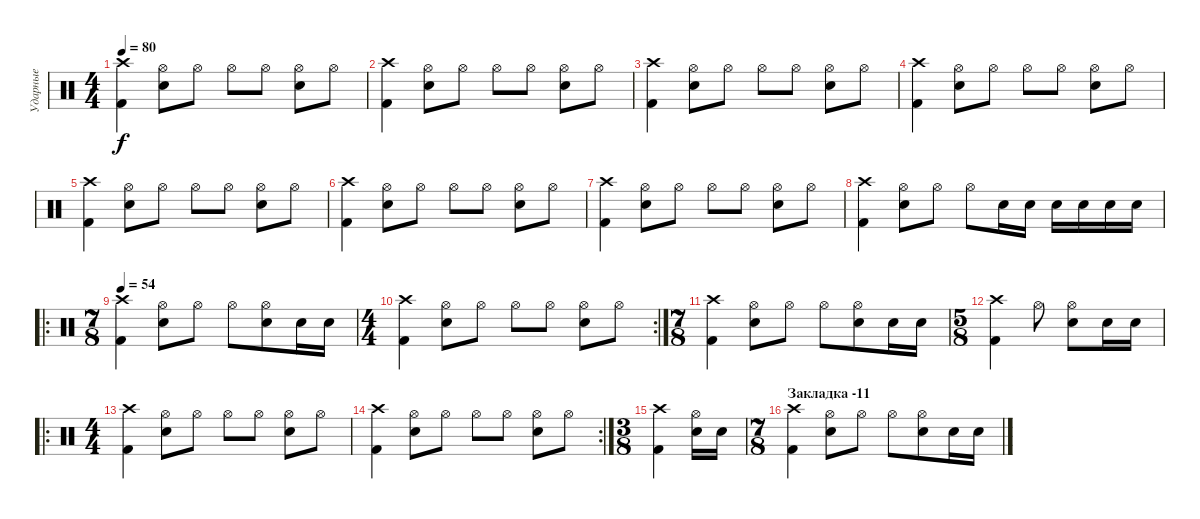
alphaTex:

\track ("Ударные" "Ударные") {instrument percussion}
\staff {score}
\articulation defaults
\ts (4 4)
\tempo 80
\clef neutral
\ks c
("Crash high (hit)" "Kick (hit) 2").4{dy f} ("Hi-Hat (open)" "Snare (hit) 2").8 "Hi-Hat (open)".8 "Hi-Hat (open)".8 "Hi-Hat (open)".8 ("Hi-Hat (open)" "Snare (hit) 2").8 "Hi-Hat (open)".8 |
("Crash high (hit)" "Kick (hit) 2").4 ("Hi-Hat (open)" "Snare (hit) 2").8 "Hi-Hat (open)".8 "Hi-Hat (open)".8 "Hi-Hat (open)".8 ("Hi-Hat (open)" "Snare (hit) 2").8 "Hi-Hat (open)".8 |
("Crash high (hit)" "Kick (hit) 2").4 ("Hi-Hat (open)" "Snare (hit) 2").8 "Hi-Hat (open)".8 "Hi-Hat (open)".8 "Hi-Hat (open)".8 ("Hi-Hat (open)" "Snare (hit) 2").8 "Hi-Hat (open)".8 |
("Crash high (hit)" "Kick (hit) 2").4 ("Hi-Hat (open)" "Snare (hit) 2").8 "Hi-Hat (open)".8 "Hi-Hat (open)".8 "Hi-Hat (open)".8 ("Hi-Hat (open)" "Snare (hit) 2").8 "Hi-Hat (open)".8 |
("Crash high (hit)" "Kick (hit) 2").4 ("Hi-Hat (open)" "Snare (hit) 2").8 "Hi-Hat (open)".8 "Hi-Hat (open)".8 "Hi-Hat (open)".8 ("Hi-Hat (open)" "Snare (hit) 2").8 "Hi-Hat (open)".8 |
("Crash high (hit)" "Kick (hit) 2").4 ("Hi-Hat (open)" "Snare (hit) 2").8 "Hi-Hat (open)".8 "Hi-Hat (open)".8 "Hi-Hat (open)".8 ("Hi-Hat (open)" "Snare (hit) 2").8 "Hi-Hat (open)".8 |
("Crash high (hit)" "Kick (hit) 2").4 ("Hi-Hat (open)" "Snare (hit) 2").8 "Hi-Hat (open)".8 "Hi-Hat (open)".8 "Hi-Hat (open)".8 ("Hi-Hat (open)" "Snare (hit) 2").8 "Hi-Hat (open)".8 |
("Crash high (hit)" "Kick (hit) 2").4 ("Hi-Hat (open)" "Snare (hit) 2").8 "Hi-Hat (open)".8 "Hi-Hat (open)".8 "Snare (hit) 2".16 "Snare (hit) 2".16 "Snare (hit) 2".16 "Snare (hit) 2".16 "Snare (hit) 2".16 "Snare (hit) 2".16 |
\ro
\ts (7 8)
\tempo 54
("Crash high (hit)" "Kick (hit) 2").4 ("Hi-Hat (open)" "Snare (hit) 2").8 "Hi-Hat (open)".8 "Hi-Hat (open)".8 ("Hi-Hat (open)" "Snare (hit) 2").8 "Snare (hit) 2".16 "Snare (hit) 2".16 |
\rc 2
\ts (4 4)
("Crash high (hit)" "Kick (hit) 2").4 ("Hi-Hat (open)" "Snare (hit) 2").8 "Hi-Hat (open)".8 "Hi-Hat (open)".8 "Hi-Hat (open)".8 ("Hi-Hat (open)" "Snare (hit) 2").8 "Hi-Hat (open)".8 |
\ts (7 8)
("Crash high (hit)" "Kick (hit) 2").4 ("Hi-Hat (open)" "Snare (hit) 2").8 "Hi-Hat (open)".8 "Hi-Hat (open)".8 ("Hi-Hat (open)" "Snare (hit) 2").8 "Snare (hit) 2".16 "Snare (hit) 2".16 |
\ts (5 8)
("Crash high (hit)" "Kick (hit) 2").4 "Hi-Hat (open)".8 ("Hi-Hat (open)" "Snare (hit) 2").8 "Snare (hit) 2".16 "Snare (hit) 2".16 |
\ro
\ts (4 4)
("Crash high (hit)" "Kick (hit) 2").4 ("Hi-Hat (open)" "Snare (hit) 2").8 "Hi-Hat (open)".8 "Hi-Hat (open)".8 "Hi-Hat (open)".8 ("Hi-Hat (open)" "Snare (hit) 2").8 "Hi-Hat (open)".8 |
\rc 2
("Crash high (hit)" "Kick (hit) 2").4 ("Hi-Hat (open)" "Snare (hit) 2").8 "Hi-Hat (open)".8 "Hi-Hat (open)".8 "Hi-Hat (open)".8 ("Hi-Hat (open)" "Snare (hit) 2").8 "Hi-Hat (open)".8 |
\ts (3 8)
("Crash high (hit)" "Kick (hit) 2").4 ("Hi-Hat (open)" "Snare (hit) 2").16 "Snare (hit) 2".16 |
\ts (7 8)
\section ("" "Закладка -11")
("Crash high (hit)" "Kick (hit) 2").4 ("Hi-Hat (open)" "Snare (hit) 2").8 "Hi-Hat (open)".8 "Hi-Hat (open)".8 ("Hi-Hat (open)" "Snare (hit) 2").8 "Snare (hit) 2".16 "Snare (hit) 2".16
